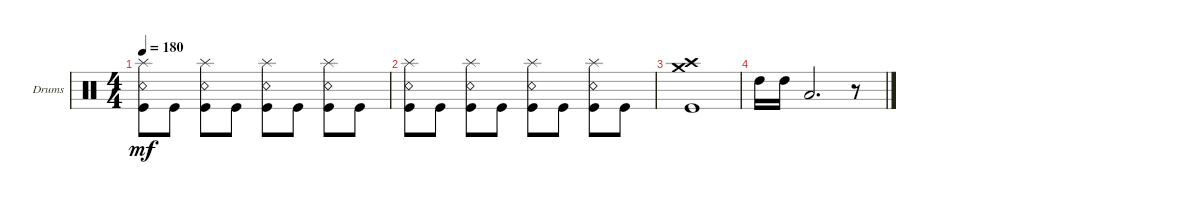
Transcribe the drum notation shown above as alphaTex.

\defaultSystemsLayout 4
\bracketExtendMode groupsimilarinstruments
\firstSystemTrackNameOrientation horizontal
\otherSystemsTrackNameOrientation horizontal
\track ("Drumkit" "Drums") {instrument percussion}
\staff {score}
\articulation defaults
\ts (4 4)
\tempo 180
\clef neutral
\ks c
("Kick (hit)" "Snare (rim shot)" "Splash (hit)").8{dy mf} "Kick (hit)".8 ("Kick (hit)" "Splash (hit)" "Snare (rim shot)").8 "Kick (hit)".8 ("Kick (hit)" "Snare (rim shot)" "Splash (hit)").8 "Kick (hit)".8 ("Kick (hit)" "Splash (hit)" "Snare (rim shot)").8 "Kick (hit)".8 |
("Kick (hit)" "Snare (rim shot)" "Splash (hit)").8 "Kick (hit)".8 ("Kick (hit)" "Snare (rim shot)" "Splash (hit)").8 "Kick (hit)".8 ("Kick (hit)" "Snare (rim shot)" "Splash (hit)").8 "Kick (hit)".8 ("Kick (hit)" "Splash (hit)" "Snare (rim shot)").8 "Kick (hit)".8 |
("Crash medium (hit)" "Crash high (hit)" "Kick (hit)").1 |
"High Tom (hit)".16 "High Tom (hit)".16 "Low Tom (hit)".2{d} r.8
